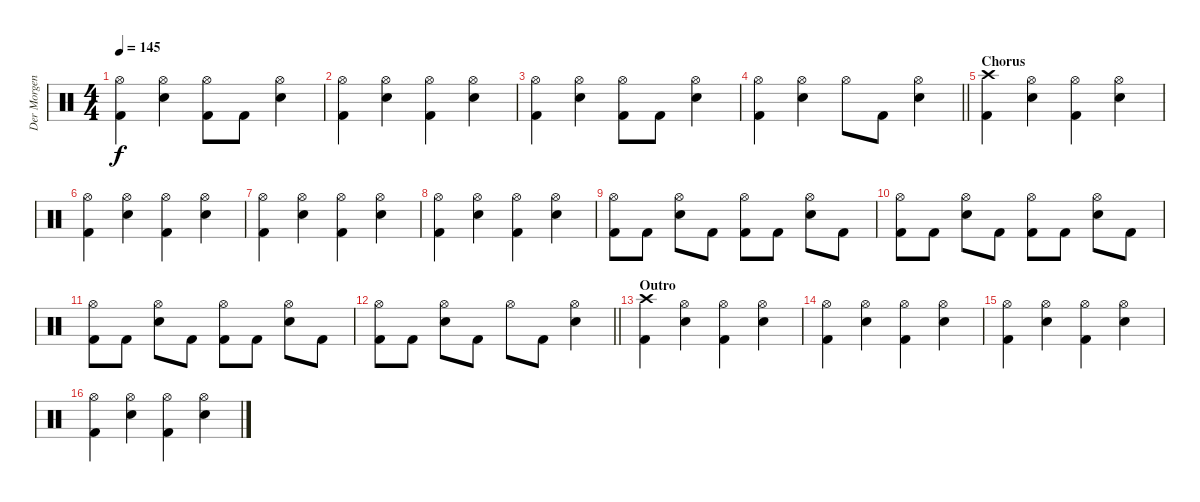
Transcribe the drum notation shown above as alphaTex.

\track ("Der Morgenstern" "Der Morgen") {instrument percussion}
\staff {score}
\articulation defaults
\ts (4 4)
\tempo 145
\clef neutral
\ks c
("Hi-Hat (open)" "Kick (hit) 2").4{dy f} ("Hi-Hat (open)" "Electric Snare (hit)").4 ("Hi-Hat (open)" "Kick (hit) 2").8 "Kick (hit) 2".8 ("Hi-Hat (open)" "Electric Snare (hit)").4 |
("Hi-Hat (open)" "Kick (hit) 2").4 ("Hi-Hat (open)" "Electric Snare (hit)").4 ("Hi-Hat (open)" "Kick (hit) 2").4 ("Hi-Hat (open)" "Electric Snare (hit)").4 |
("Hi-Hat (open)" "Kick (hit) 2").4 ("Hi-Hat (open)" "Electric Snare (hit)").4 ("Hi-Hat (open)" "Kick (hit) 2").8 "Kick (hit) 2".8 ("Hi-Hat (open)" "Electric Snare (hit)").4 |
\barLineRight lightlight
("Hi-Hat (open)" "Kick (hit) 2").4 ("Hi-Hat (open)" "Electric Snare (hit)").4 "Hi-Hat (open)".8 "Kick (hit) 2".8 ("Hi-Hat (open)" "Electric Snare (hit)").4 |
\section ("" "Chorus")
("Crash high (hit)" "Kick (hit) 2").4 ("Hi-Hat (open)" "Electric Snare (hit)").4 ("Hi-Hat (open)" "Kick (hit) 2").4 ("Hi-Hat (open)" "Electric Snare (hit)").4 |
("Hi-Hat (open)" "Kick (hit) 2").4 ("Hi-Hat (open)" "Electric Snare (hit)").4 ("Hi-Hat (open)" "Kick (hit) 2").4 ("Hi-Hat (open)" "Electric Snare (hit)").4 |
("Hi-Hat (open)" "Kick (hit) 2").4 ("Hi-Hat (open)" "Electric Snare (hit)").4 ("Hi-Hat (open)" "Kick (hit) 2").4 ("Hi-Hat (open)" "Electric Snare (hit)").4 |
("Hi-Hat (open)" "Kick (hit) 2").4 ("Hi-Hat (open)" "Electric Snare (hit)").4 ("Hi-Hat (open)" "Kick (hit) 2").4 ("Hi-Hat (open)" "Electric Snare (hit)").4 |
("Hi-Hat (open)" "Kick (hit) 2").8 "Kick (hit) 2".8 ("Hi-Hat (open)" "Electric Snare (hit)").8 "Kick (hit) 2".8 ("Hi-Hat (open)" "Kick (hit) 2").8 "Kick (hit) 2".8 ("Hi-Hat (open)" "Electric Snare (hit)").8 "Kick (hit) 2".8 |
("Hi-Hat (open)" "Kick (hit) 2").8 "Kick (hit) 2".8 ("Hi-Hat (open)" "Electric Snare (hit)").8 "Kick (hit) 2".8 ("Hi-Hat (open)" "Kick (hit) 2").8 "Kick (hit) 2".8 ("Hi-Hat (open)" "Electric Snare (hit)").8 "Kick (hit) 2".8 |
("Hi-Hat (open)" "Kick (hit) 2").8 "Kick (hit) 2".8 ("Hi-Hat (open)" "Electric Snare (hit)").8 "Kick (hit) 2".8 ("Hi-Hat (open)" "Kick (hit) 2").8 "Kick (hit) 2".8 ("Hi-Hat (open)" "Electric Snare (hit)").8 "Kick (hit) 2".8 |
\barLineRight lightlight
("Hi-Hat (open)" "Kick (hit) 2").8 "Kick (hit) 2".8 ("Hi-Hat (open)" "Electric Snare (hit)").8 "Kick (hit) 2".8 "Hi-Hat (open)".8 "Kick (hit) 2".8 ("Hi-Hat (open)" "Electric Snare (hit)").4 |
\section ("" "Outro")
("Crash high (hit)" "Kick (hit) 2").4 ("Hi-Hat (open)" "Electric Snare (hit)").4 ("Hi-Hat (open)" "Kick (hit) 2").4 ("Hi-Hat (open)" "Electric Snare (hit)").4 |
("Hi-Hat (open)" "Kick (hit) 2").4 ("Hi-Hat (open)" "Electric Snare (hit)").4 ("Hi-Hat (open)" "Kick (hit) 2").4 ("Hi-Hat (open)" "Electric Snare (hit)").4 |
("Hi-Hat (open)" "Kick (hit) 2").4 ("Hi-Hat (open)" "Electric Snare (hit)").4 ("Hi-Hat (open)" "Kick (hit) 2").4 ("Hi-Hat (open)" "Electric Snare (hit)").4 |
("Hi-Hat (open)" "Kick (hit) 2").4 ("Hi-Hat (open)" "Electric Snare (hit)").4 ("Hi-Hat (open)" "Kick (hit) 2").4 ("Hi-Hat (open)" "Electric Snare (hit)").4
